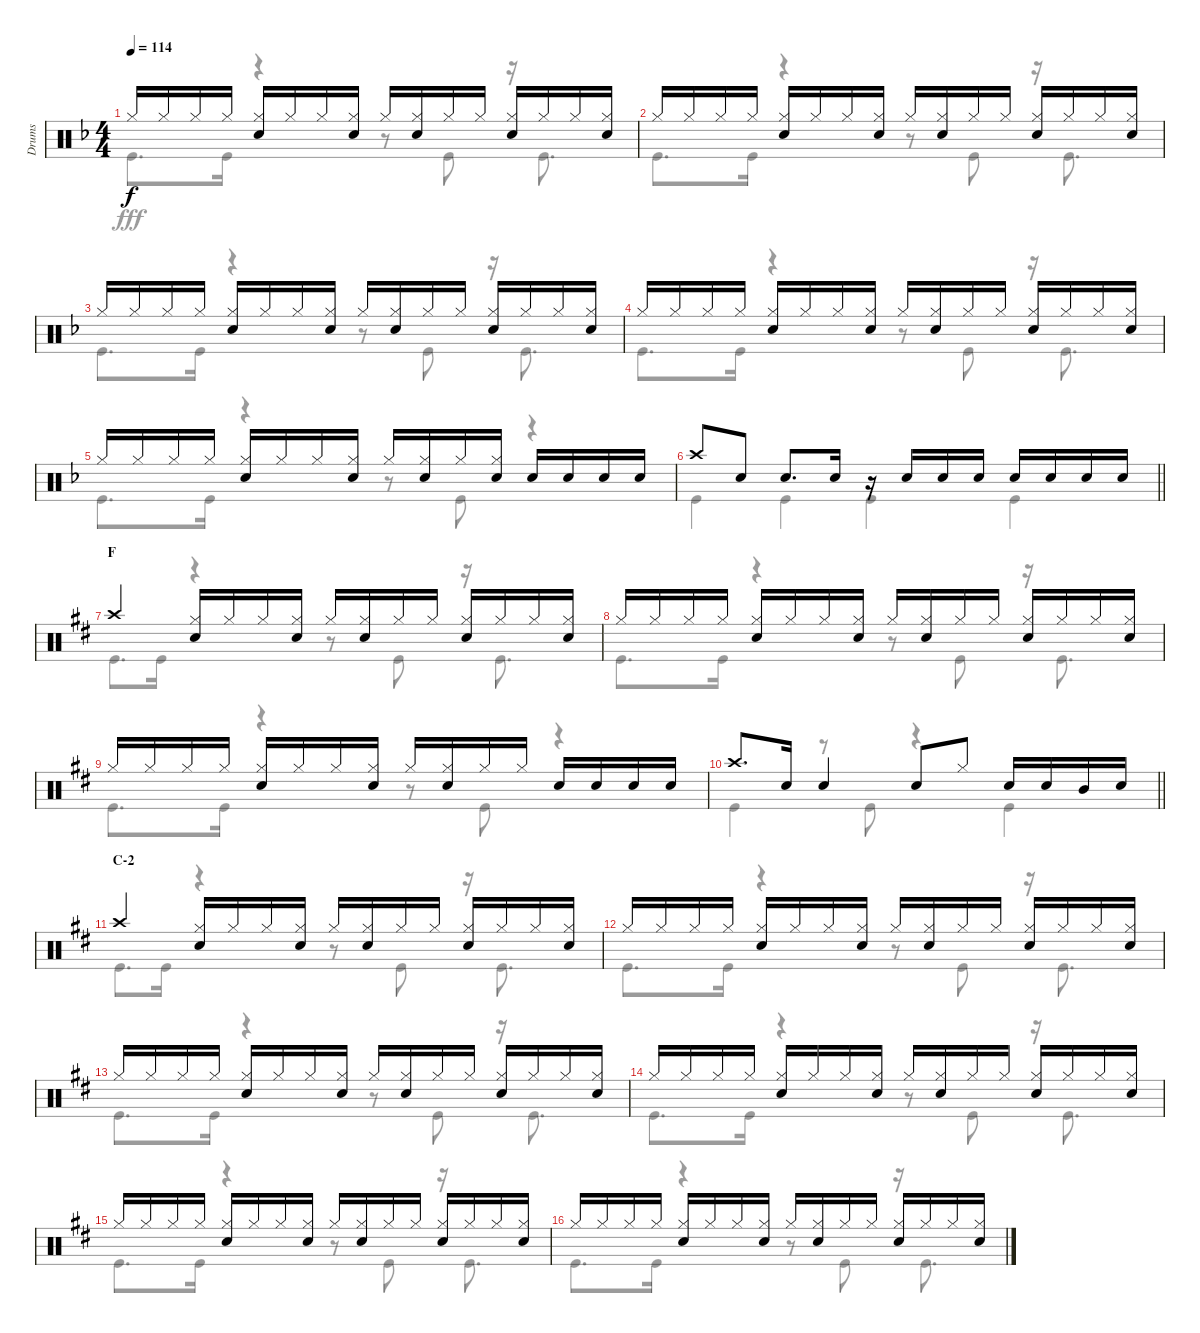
\track ("Drums" "Drums") {instrument percussion}
\staff {score}
\articulation defaults
\voice
\ts (4 4)
\tempo 114
\clef neutral
\ks f "Hi-Hat (closed)".16{dy f} "Hi-Hat (closed)".16 "Hi-Hat (closed)".16 "Hi-Hat (closed)".16
("Hi-Hat (closed)" "Snare (hit) 2").16 "Hi-Hat (closed)".16 "Hi-Hat (closed)".16 ("Hi-Hat (closed)" "Snare (hit) 2").16 "Hi-Hat (closed)".16 ("Hi-Hat (closed)" "Snare (hit) 2").16 "Hi-Hat (closed)".16 "Hi-Hat (closed)".16 ("Hi-Hat (closed)" "Snare (hit) 2").16 "Hi-Hat (closed)".16 "Hi-Hat (closed)".16 ("Hi-Hat (closed)" "Snare (hit) 2").16 |
"Hi-Hat (closed)".16 "Hi-Hat (closed)".16 "Hi-Hat (closed)".16 "Hi-Hat (closed)".16 ("Hi-Hat (closed)" "Snare (hit) 2").16 "Hi-Hat (closed)".16 "Hi-Hat (closed)".16 ("Hi-Hat (closed)" "Snare (hit) 2").16 "Hi-Hat (closed)".16 ("Hi-Hat (closed)" "Snare (hit) 2").16 "Hi-Hat (closed)".16 "Hi-Hat (closed)".16 ("Hi-Hat (closed)" "Snare (hit) 2").16 "Hi-Hat (closed)".16 "Hi-Hat (closed)".16 ("Hi-Hat (closed)" "Snare (hit) 2").16 |
"Hi-Hat (closed)".16 "Hi-Hat (closed)".16 "Hi-Hat (closed)".16 "Hi-Hat (closed)".16 ("Hi-Hat (closed)" "Snare (hit) 2").16 "Hi-Hat (closed)".16 "Hi-Hat (closed)".16 ("Hi-Hat (closed)" "Snare (hit) 2").16 "Hi-Hat (closed)".16 ("Hi-Hat (closed)" "Snare (hit) 2").16 "Hi-Hat (closed)".16 "Hi-Hat (closed)".16 ("Hi-Hat (closed)" "Snare (hit) 2").16 "Hi-Hat (closed)".16 "Hi-Hat (closed)".16 ("Hi-Hat (closed)" "Snare (hit) 2").16 |
"Hi-Hat (closed)".16 "Hi-Hat (closed)".16 "Hi-Hat (closed)".16 "Hi-Hat (closed)".16 ("Hi-Hat (closed)" "Snare (hit) 2").16 "Hi-Hat (closed)".16 "Hi-Hat (closed)".16 ("Hi-Hat (closed)" "Snare (hit) 2").16 "Hi-Hat (closed)".16 ("Hi-Hat (closed)" "Snare (hit) 2").16 "Hi-Hat (closed)".16 "Hi-Hat (closed)".16 ("Hi-Hat (closed)" "Snare (hit) 2").16 "Hi-Hat (closed)".16 "Hi-Hat (closed)".16 ("Hi-Hat (closed)" "Snare (hit) 2").16 |
"Hi-Hat (closed)".16 "Hi-Hat (closed)".16 "Hi-Hat (closed)".16 "Hi-Hat (closed)".16 ("Hi-Hat (closed)" "Snare (hit) 2").16 "Hi-Hat (closed)".16 "Hi-Hat (closed)".16 ("Hi-Hat (closed)" "Snare (hit) 2").16 "Hi-Hat (closed)".16 ("Hi-Hat (closed)" "Snare (hit) 2").16 "Hi-Hat (closed)".16 ("Hi-Hat (closed)" "Snare (hit) 2").16 "Snare (hit) 2".16 "Snare (hit) 2".16 "Snare (hit) 2".16 "Snare (hit) 2".16 |
\barLineRight lightlight "Crash high (hit)".8 "Snare (hit) 2".8 "Snare (hit) 2".8{d} "Snare (hit) 2".16
r.16 "Snare (hit) 2".16 "Snare (hit) 2".16 "Snare (hit) 2".16 "Snare (hit) 2".16 "Snare (hit) 2".16 "Snare (hit) 2".16 "Snare (hit) 2".16 |
\section ("" "F")
\ks d "Crash high (hit)".4
("Hi-Hat (closed)" "Snare (hit) 2").16 "Hi-Hat (closed)".16 "Hi-Hat (closed)".16 ("Hi-Hat (closed)" "Snare (hit) 2").16 "Hi-Hat (closed)".16 ("Hi-Hat (closed)" "Snare (hit) 2").16 "Hi-Hat (closed)".16 "Hi-Hat (closed)".16 ("Hi-Hat (closed)" "Snare (hit) 2").16 "Hi-Hat (closed)".16 "Hi-Hat (closed)".16 ("Hi-Hat (closed)" "Snare (hit) 2").16 |
"Hi-Hat (closed)".16 "Hi-Hat (closed)".16 "Hi-Hat (closed)".16 "Hi-Hat (closed)".16 ("Hi-Hat (closed)" "Snare (hit) 2").16 "Hi-Hat (closed)".16 "Hi-Hat (closed)".16 ("Hi-Hat (closed)" "Snare (hit) 2").16 "Hi-Hat (closed)".16 ("Hi-Hat (closed)" "Snare (hit) 2").16 "Hi-Hat (closed)".16 "Hi-Hat (closed)".16 ("Hi-Hat (closed)" "Snare (hit) 2").16 "Hi-Hat (closed)".16 "Hi-Hat (closed)".16 ("Hi-Hat (closed)" "Snare (hit) 2").16 |
"Hi-Hat (closed)".16 "Hi-Hat (closed)".16 "Hi-Hat (closed)".16 "Hi-Hat (closed)".16 ("Hi-Hat (closed)" "Snare (hit) 2").16 "Hi-Hat (closed)".16 "Hi-Hat (closed)".16 ("Hi-Hat (closed)" "Snare (hit) 2").16 "Hi-Hat (closed)".16 ("Hi-Hat (closed)" "Snare (hit) 2").16 "Hi-Hat (closed)".16 "Hi-Hat (closed)".16 "Snare (hit) 2".16 "Snare (hit) 2".16 "Snare (hit) 2".16 "Snare (hit) 2".16 |
\barLineRight lightlight "Crash high (hit)".8{d} "Snare (hit) 2".16 "Snare (hit) 2".4 "Snare (hit) 2".8 "Hi-Hat (closed)".8 "Snare (hit) 2".16 "Snare (hit) 2".16 "Mid Tom (hit)".16 "Snare (hit) 2".16
|
\section ("" "C-2")
"Crash high (hit)".4 ("Hi-Hat (closed)" "Snare (hit) 2").16 "Hi-Hat (closed)".16 "Hi-Hat (closed)".16 ("Hi-Hat (closed)" "Snare (hit) 2").16 "Hi-Hat (closed)".16 ("Hi-Hat (closed)" "Snare (hit) 2").16 "Hi-Hat (closed)".16 "Hi-Hat (closed)".16 ("Hi-Hat (closed)" "Snare (hit) 2").16 "Hi-Hat (closed)".16 "Hi-Hat (closed)".16 ("Hi-Hat (closed)" "Snare (hit) 2").16 |
"Hi-Hat (closed)".16 "Hi-Hat (closed)".16 "Hi-Hat (closed)".16 "Hi-Hat (closed)".16 ("Hi-Hat (closed)" "Snare (hit) 2").16 "Hi-Hat (closed)".16 "Hi-Hat (closed)".16 ("Hi-Hat (closed)" "Snare (hit) 2").16 "Hi-Hat (closed)".16 ("Hi-Hat (closed)" "Snare (hit) 2").16 "Hi-Hat (closed)".16 "Hi-Hat (closed)".16 ("Hi-Hat (closed)" "Snare (hit) 2").16 "Hi-Hat (closed)".16 "Hi-Hat (closed)".16 ("Hi-Hat (closed)" "Snare (hit) 2").16 |
"Hi-Hat (closed)".16 "Hi-Hat (closed)".16 "Hi-Hat (closed)".16 "Hi-Hat (closed)".16 ("Hi-Hat (closed)" "Snare (hit) 2").16 "Hi-Hat (closed)".16 "Hi-Hat (closed)".16 ("Hi-Hat (closed)" "Snare (hit) 2").16 "Hi-Hat (closed)".16 ("Hi-Hat (closed)" "Snare (hit) 2").16 "Hi-Hat (closed)".16 "Hi-Hat (closed)".16 ("Hi-Hat (closed)" "Snare (hit) 2").16 "Hi-Hat (closed)".16 "Hi-Hat (closed)".16 ("Hi-Hat (closed)" "Snare (hit) 2").16 |
"Hi-Hat (closed)".16 "Hi-Hat (closed)".16 "Hi-Hat (closed)".16 "Hi-Hat (closed)".16 ("Hi-Hat (closed)" "Snare (hit) 2").16 "Hi-Hat (closed)".16 "Hi-Hat (closed)".16 ("Hi-Hat (closed)" "Snare (hit) 2").16 "Hi-Hat (closed)".16 ("Hi-Hat (closed)" "Snare (hit) 2").16 "Hi-Hat (closed)".16 "Hi-Hat (closed)".16 ("Hi-Hat (closed)" "Snare (hit) 2").16 "Hi-Hat (closed)".16 "Hi-Hat (closed)".16 ("Hi-Hat (closed)" "Snare (hit) 2").16 |
"Hi-Hat (closed)".16 "Hi-Hat (closed)".16 "Hi-Hat (closed)".16 "Hi-Hat (closed)".16 ("Hi-Hat (closed)" "Snare (hit) 2").16 "Hi-Hat (closed)".16 "Hi-Hat (closed)".16 ("Hi-Hat (closed)" "Snare (hit) 2").16 "Hi-Hat (closed)".16 ("Hi-Hat (closed)" "Snare (hit) 2").16 "Hi-Hat (closed)".16 "Hi-Hat (closed)".16 ("Hi-Hat (closed)" "Snare (hit) 2").16 "Hi-Hat (closed)".16 "Hi-Hat (closed)".16 ("Hi-Hat (closed)" "Snare (hit) 2").16 |
"Hi-Hat (closed)".16 "Hi-Hat (closed)".16 "Hi-Hat (closed)".16 "Hi-Hat (closed)".16 ("Hi-Hat (closed)" "Snare (hit) 2").16 "Hi-Hat (closed)".16 "Hi-Hat (closed)".16 ("Hi-Hat (closed)" "Snare (hit) 2").16 "Hi-Hat (closed)".16 ("Hi-Hat (closed)" "Snare (hit) 2").16 "Hi-Hat (closed)".16 "Hi-Hat (closed)".16 ("Hi-Hat (closed)" "Snare (hit) 2").16 "Hi-Hat (closed)".16 "Hi-Hat (closed)".16 ("Hi-Hat (closed)" "Snare (hit) 2").16
\voice
\clef neutral
\ottava regular
\simile none
\ks f "Kick (hit)".8{d dy fff} "Kick (hit)".16
r.4 r.8 "Kick (hit)".8 r.16 "Kick (hit)".8{d} |
"Kick (hit)".8{d} "Kick (hit)".16 r.4 r.8 "Kick (hit)".8 r.16 "Kick (hit)".8{d} |
"Kick (hit)".8{d} "Kick (hit)".16 r.4 r.8 "Kick (hit)".8 r.16 "Kick (hit)".8{d} |
"Kick (hit)".8{d} "Kick (hit)".16 r.4 r.8 "Kick (hit)".8 r.16 "Kick (hit)".8{d} |
"Kick (hit)".8{d} "Kick (hit)".16 r.4 r.8 "Kick (hit)".8 r.4 |
\barLineRight lightlight "Kick (hit)".4 "Kick (hit)".4 "Kick (hit)".4 "Kick (hit)".4
|
\ks d "Kick (hit)".8{d} "Kick (hit)".16
r.4 r.8 "Kick (hit)".8 r.16 "Kick (hit)".8{d} |
"Kick (hit)".8{d} "Kick (hit)".16 r.4 r.8 "Kick (hit)".8 r.16 "Kick (hit)".8{d} |
"Kick (hit)".8{d} "Kick (hit)".16 r.4 r.8 "Kick (hit)".8 r.4 |
\barLineRight lightlight "Kick (hit)".4
r.8 "Kick (hit)".8 r.4 "Kick (hit)".4 |
"Kick (hit)".8{d} "Kick (hit)".16 r.4 r.8 "Kick (hit)".8 r.16 "Kick (hit)".8{d} |
"Kick (hit)".8{d} "Kick (hit)".16 r.4 r.8 "Kick (hit)".8 r.16 "Kick (hit)".8{d} |
"Kick (hit)".8{d} "Kick (hit)".16 r.4 r.8 "Kick (hit)".8 r.16 "Kick (hit)".8{d} |
"Kick (hit)".8{d} "Kick (hit)".16 r.4 r.8 "Kick (hit)".8 r.16 "Kick (hit)".8{d} |
"Kick (hit)".8{d} "Kick (hit)".16 r.4 r.8 "Kick (hit)".8 r.16 "Kick (hit)".8{d} |
"Kick (hit)".8{d} "Kick (hit)".16 r.4 r.8 "Kick (hit)".8 r.16 "Kick (hit)".8{d}
